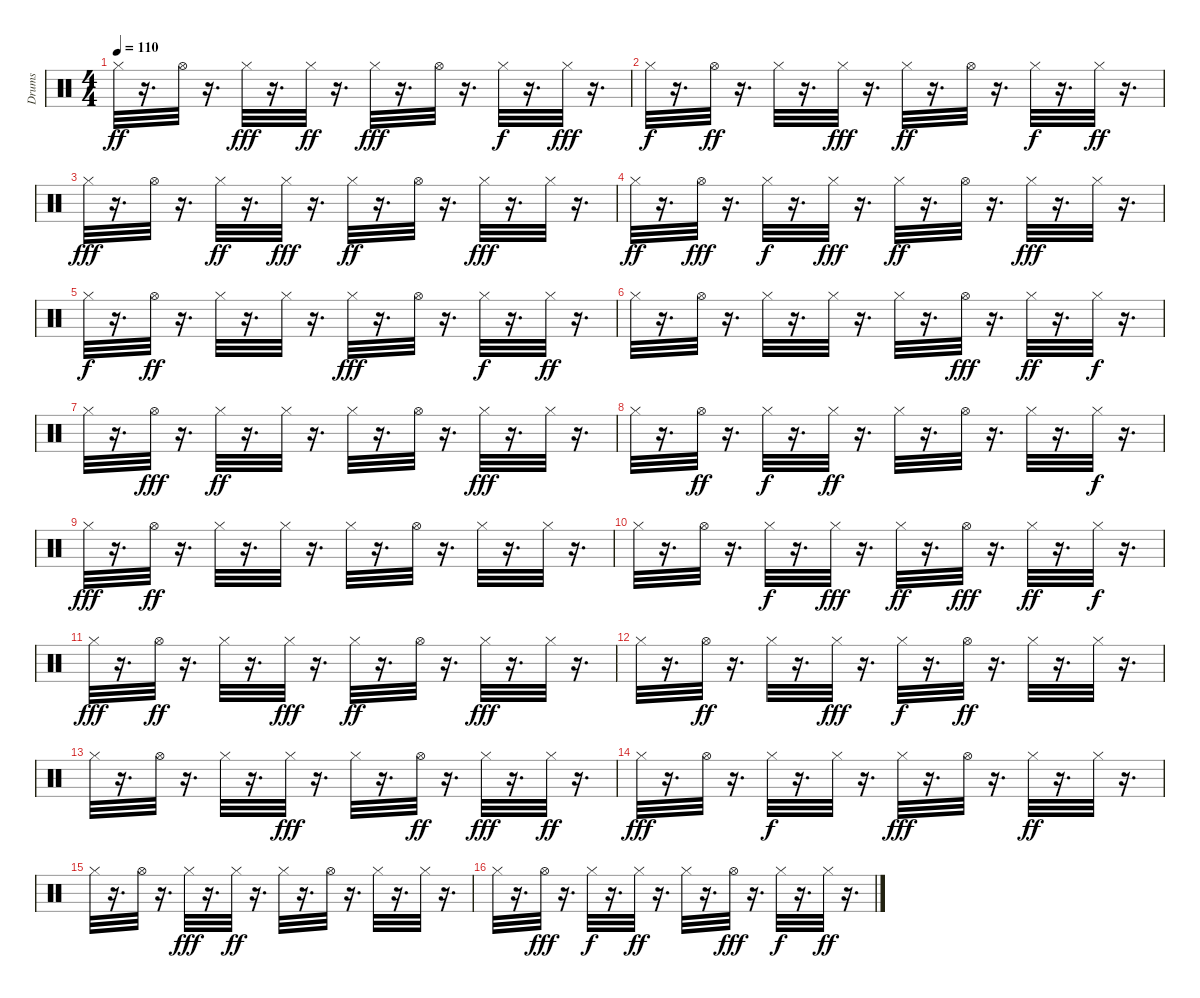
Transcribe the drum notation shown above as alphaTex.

\track ("Drums" "Drums") {instrument percussion}
\staff {score}
\articulation defaults
\ts (4 4)
\tempo 110
\clef neutral
\ks c "Hi-Hat (closed)".32{dy ff}
r.16{d} "Hi-Hat (open)".32 r.16{d} "Hi-Hat (closed)".32{dy fff} r.16{d} "Hi-Hat (closed)".32{dy ff} r.16{d} "Hi-Hat (closed)".32{dy fff} r.16{d} "Hi-Hat (open)".32 r.16{d} "Hi-Hat (closed)".32{dy f} r.16{d} "Hi-Hat (closed)".32{dy fff} r.16{d} |
"Hi-Hat (closed)".32{dy f} r.16{d} "Hi-Hat (open)".32{dy ff} r.16{d} "Hi-Hat (closed)".32 r.16{d} "Hi-Hat (closed)".32{dy fff} r.16{d} "Hi-Hat (closed)".32{dy ff} r.16{d} "Hi-Hat (open)".32 r.16{d} "Hi-Hat (closed)".32{dy f} r.16{d} "Hi-Hat (closed)".32{dy ff} r.16{d} |
"Hi-Hat (closed)".32{dy fff} r.16{d} "Hi-Hat (open)".32 r.16{d} "Hi-Hat (closed)".32{dy ff} r.16{d} "Hi-Hat (closed)".32{dy fff} r.16{d} "Hi-Hat (closed)".32{dy ff} r.16{d} "Hi-Hat (open)".32 r.16{d} "Hi-Hat (closed)".32{dy fff} r.16{d} "Hi-Hat (closed)".32 r.16{d} |
"Hi-Hat (closed)".32{dy ff} r.16{d} "Hi-Hat (open)".32{dy fff} r.16{d} "Hi-Hat (closed)".32{dy f} r.16{d} "Hi-Hat (closed)".32{dy fff} r.16{d} "Hi-Hat (closed)".32{dy ff} r.16{d} "Hi-Hat (open)".32 r.16{d} "Hi-Hat (closed)".32{dy fff} r.16{d} "Hi-Hat (closed)".32 r.16{d} |
"Hi-Hat (closed)".32{dy f} r.16{d} "Hi-Hat (open)".32{dy ff} r.16{d} "Hi-Hat (closed)".32 r.16{d} "Hi-Hat (closed)".32 r.16{d} "Hi-Hat (closed)".32{dy fff} r.16{d} "Hi-Hat (open)".32 r.16{d} "Hi-Hat (closed)".32{dy f} r.16{d} "Hi-Hat (closed)".32{dy ff} r.16{d} |
"Hi-Hat (closed)".32 r.16{d} "Hi-Hat (open)".32 r.16{d} "Hi-Hat (closed)".32 r.16{d} "Hi-Hat (closed)".32 r.16{d} "Hi-Hat (closed)".32 r.16{d} "Hi-Hat (open)".32{dy fff} r.16{d} "Hi-Hat (closed)".32{dy ff} r.16{d} "Hi-Hat (closed)".32{dy f} r.16{d} |
"Hi-Hat (closed)".32 r.16{d} "Hi-Hat (open)".32{dy fff} r.16{d} "Hi-Hat (closed)".32{dy ff} r.16{d} "Hi-Hat (closed)".32 r.16{d} "Hi-Hat (closed)".32 r.16{d} "Hi-Hat (open)".32 r.16{d} "Hi-Hat (closed)".32{dy fff} r.16{d} "Hi-Hat (closed)".32 r.16{d} |
"Hi-Hat (closed)".32 r.16{d} "Hi-Hat (open)".32{dy ff} r.16{d} "Hi-Hat (closed)".32{dy f} r.16{d} "Hi-Hat (closed)".32{dy ff} r.16{d} "Hi-Hat (closed)".32 r.16{d} "Hi-Hat (open)".32 r.16{d} "Hi-Hat (closed)".32 r.16{d} "Hi-Hat (closed)".32{dy f} r.16{d} |
"Hi-Hat (closed)".32{dy fff} r.16{d} "Hi-Hat (open)".32{dy ff} r.16{d} "Hi-Hat (closed)".32 r.16{d} "Hi-Hat (closed)".32 r.16{d} "Hi-Hat (closed)".32 r.16{d} "Hi-Hat (open)".32 r.16{d} "Hi-Hat (closed)".32 r.16{d} "Hi-Hat (closed)".32 r.16{d} |
"Hi-Hat (closed)".32 r.16{d} "Hi-Hat (open)".32 r.16{d} "Hi-Hat (closed)".32{dy f} r.16{d} "Hi-Hat (closed)".32{dy fff} r.16{d} "Hi-Hat (closed)".32{dy ff} r.16{d} "Hi-Hat (open)".32{dy fff} r.16{d} "Hi-Hat (closed)".32{dy ff} r.16{d} "Hi-Hat (closed)".32{dy f} r.16{d} |
"Hi-Hat (closed)".32{dy fff} r.16{d} "Hi-Hat (open)".32{dy ff} r.16{d} "Hi-Hat (closed)".32 r.16{d} "Hi-Hat (closed)".32{dy fff} r.16{d} "Hi-Hat (closed)".32{dy ff} r.16{d} "Hi-Hat (open)".32 r.16{d} "Hi-Hat (closed)".32{dy fff} r.16{d} "Hi-Hat (closed)".32 r.16{d} |
"Hi-Hat (closed)".32 r.16{d} "Hi-Hat (open)".32{dy ff} r.16{d} "Hi-Hat (closed)".32 r.16{d} "Hi-Hat (closed)".32{dy fff} r.16{d} "Hi-Hat (closed)".32{dy f} r.16{d} "Hi-Hat (open)".32{dy ff} r.16{d} "Hi-Hat (closed)".32 r.16{d} "Hi-Hat (closed)".32 r.16{d} |
"Hi-Hat (closed)".32 r.16{d} "Hi-Hat (open)".32 r.16{d} "Hi-Hat (closed)".32 r.16{d} "Hi-Hat (closed)".32{dy fff} r.16{d} "Hi-Hat (closed)".32 r.16{d} "Hi-Hat (open)".32{dy ff} r.16{d} "Hi-Hat (closed)".32{dy fff} r.16{d} "Hi-Hat (closed)".32{dy ff} r.16{d} |
"Hi-Hat (closed)".32{dy fff} r.16{d} "Hi-Hat (open)".32 r.16{d} "Hi-Hat (closed)".32{dy f} r.16{d} "Hi-Hat (closed)".32 r.16{d} "Hi-Hat (closed)".32{dy fff} r.16{d} "Hi-Hat (open)".32 r.16{d} "Hi-Hat (closed)".32{dy ff} r.16{d} "Hi-Hat (closed)".32 r.16{d} |
"Hi-Hat (closed)".32 r.16{d} "Hi-Hat (open)".32 r.16{d} "Hi-Hat (closed)".32{dy fff} r.16{d} "Hi-Hat (closed)".32{dy ff} r.16{d} "Hi-Hat (closed)".32 r.16{d} "Hi-Hat (open)".32 r.16{d} "Hi-Hat (closed)".32 r.16{d} "Hi-Hat (closed)".32 r.16{d} |
"Hi-Hat (closed)".32 r.16{d} "Hi-Hat (open)".32{dy fff} r.16{d} "Hi-Hat (closed)".32{dy f} r.16{d} "Hi-Hat (closed)".32{dy ff} r.16{d} "Hi-Hat (closed)".32 r.16{d} "Hi-Hat (open)".32{dy fff} r.16{d} "Hi-Hat (closed)".32{dy f} r.16{d} "Hi-Hat (closed)".32{dy ff} r.16{d}
